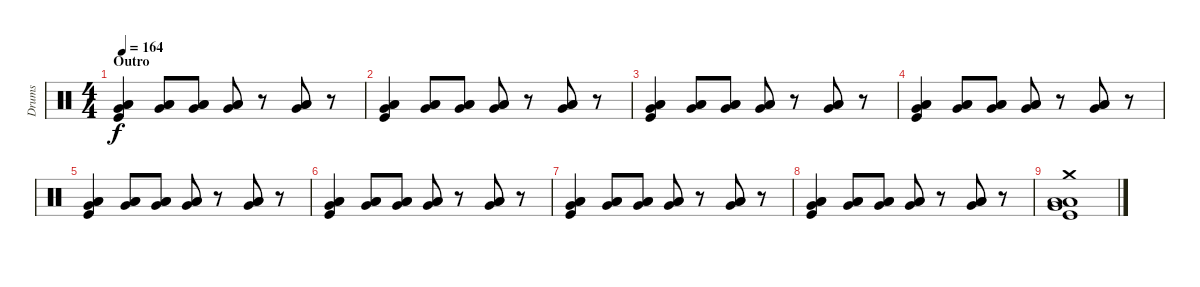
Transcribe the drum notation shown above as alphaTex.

\track ("Drums" "Drums") {instrument percussion}
\staff {score}
\articulation defaults
\ts (4 4)
\section ("" "Outro")
\tempo 164
\clef neutral
\ks c
("Low Tom (hit)" "Low Floor Tom (hit)" "Very Low Tom (hit)" "Kick (hit)").4{dy f} ("Low Tom (hit)" "Low Floor Tom (hit)" "Very Low Tom (hit)").8 ("Low Tom (hit)" "Low Floor Tom (hit)" "Very Low Tom (hit)").8 ("Low Tom (hit)" "Low Floor Tom (hit)" "Very Low Tom (hit)").8 r.8 ("Low Tom (hit)" "Low Floor Tom (hit)" "Very Low Tom (hit)").8 r.8 |
("Low Tom (hit)" "Low Floor Tom (hit)" "Very Low Tom (hit)" "Kick (hit)").4 ("Low Tom (hit)" "Low Floor Tom (hit)" "Very Low Tom (hit)").8 ("Low Tom (hit)" "Low Floor Tom (hit)" "Very Low Tom (hit)").8 ("Low Tom (hit)" "Low Floor Tom (hit)" "Very Low Tom (hit)").8 r.8 ("Low Tom (hit)" "Low Floor Tom (hit)" "Very Low Tom (hit)").8 r.8 |
("Low Tom (hit)" "Low Floor Tom (hit)" "Very Low Tom (hit)" "Kick (hit)").4 ("Low Tom (hit)" "Low Floor Tom (hit)" "Very Low Tom (hit)").8 ("Low Tom (hit)" "Low Floor Tom (hit)" "Very Low Tom (hit)").8 ("Low Tom (hit)" "Low Floor Tom (hit)" "Very Low Tom (hit)").8 r.8 ("Low Tom (hit)" "Low Floor Tom (hit)" "Very Low Tom (hit)").8 r.8 |
("Low Tom (hit)" "Low Floor Tom (hit)" "Very Low Tom (hit)" "Kick (hit)").4 ("Low Tom (hit)" "Low Floor Tom (hit)" "Very Low Tom (hit)").8 ("Low Tom (hit)" "Low Floor Tom (hit)" "Very Low Tom (hit)").8 ("Low Tom (hit)" "Low Floor Tom (hit)" "Very Low Tom (hit)").8 r.8 ("Low Tom (hit)" "Low Floor Tom (hit)" "Very Low Tom (hit)").8 r.8 |
("Low Tom (hit)" "Low Floor Tom (hit)" "Very Low Tom (hit)" "Kick (hit)").4 ("Low Tom (hit)" "Low Floor Tom (hit)" "Very Low Tom (hit)").8 ("Low Tom (hit)" "Low Floor Tom (hit)" "Very Low Tom (hit)").8 ("Low Tom (hit)" "Low Floor Tom (hit)" "Very Low Tom (hit)").8 r.8 ("Low Tom (hit)" "Low Floor Tom (hit)" "Very Low Tom (hit)").8 r.8 |
("Low Tom (hit)" "Low Floor Tom (hit)" "Very Low Tom (hit)" "Kick (hit)").4 ("Low Tom (hit)" "Low Floor Tom (hit)" "Very Low Tom (hit)").8 ("Low Tom (hit)" "Low Floor Tom (hit)" "Very Low Tom (hit)").8 ("Low Tom (hit)" "Low Floor Tom (hit)" "Very Low Tom (hit)").8 r.8 ("Low Tom (hit)" "Low Floor Tom (hit)" "Very Low Tom (hit)").8 r.8 |
("Low Tom (hit)" "Low Floor Tom (hit)" "Very Low Tom (hit)" "Kick (hit)").4 ("Low Tom (hit)" "Low Floor Tom (hit)" "Very Low Tom (hit)").8 ("Low Tom (hit)" "Low Floor Tom (hit)" "Very Low Tom (hit)").8 ("Low Tom (hit)" "Low Floor Tom (hit)" "Very Low Tom (hit)").8 r.8 ("Low Tom (hit)" "Low Floor Tom (hit)" "Very Low Tom (hit)").8 r.8 |
("Low Tom (hit)" "Low Floor Tom (hit)" "Very Low Tom (hit)" "Kick (hit)").4 ("Low Tom (hit)" "Low Floor Tom (hit)" "Very Low Tom (hit)").8 ("Low Tom (hit)" "Low Floor Tom (hit)" "Very Low Tom (hit)").8 ("Low Tom (hit)" "Low Floor Tom (hit)" "Very Low Tom (hit)").8 r.8 ("Low Tom (hit)" "Low Floor Tom (hit)" "Very Low Tom (hit)").8 r.8 |
("Crash medium (hit)" "Low Tom (hit)" "Low Floor Tom (hit)" "Very Low Tom (hit)" "Kick (hit)").1
